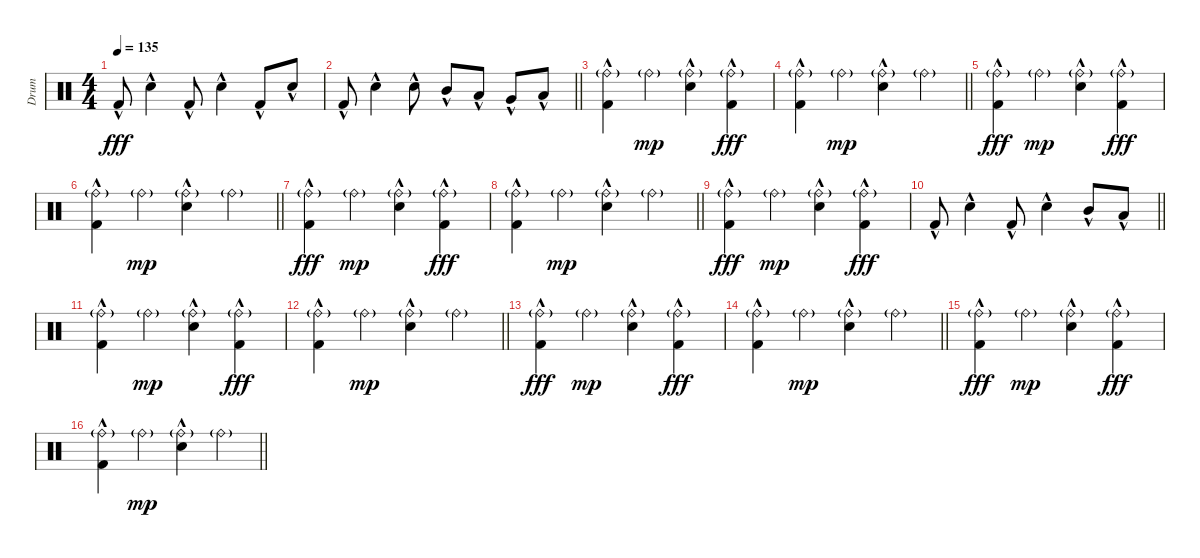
\track ("Drum" "Drum") {instrument percussion}
\staff {score}
\articulation defaults
\ts (4 4)
\tempo 135
\clef neutral
\ks c "Kick (hit) 2"{hac}.8{dy fff} "Electric Snare (hit)"{hac}.4 "Kick (hit) 2"{hac}.8 "Electric Snare (hit)"{hac}.4 "Kick (hit) 2"{hac}.8 "Electric Snare (hit)"{hac}.8
|
\barLineRight lightlight "Kick (hit) 2"{hac}.8 "Electric Snare (hit)"{hac}.4 "Electric Snare (hit)"{hac}.8 "Mid Tom (hit)"{hac}.8 "Low Tom (hit)"{hac}.8 "Very Low Tom (hit)"{hac}.8 "Low Floor Tom (hit)"{hac}.8
|
("Ride (bell)"{g} "Kick (hit) 2"{hac}).4 "Ride (bell)"{g}.4{dy mp} ("Electric Snare (hit)"{hac} "Ride (bell)"{g}).4 ("Ride (bell)"{g} "Kick (hit) 2"{hac}).4{dy fff} |
\barLineRight lightlight
("Ride (bell)"{g} "Kick (hit) 2"{hac}).4 "Ride (bell)"{g}.4{dy mp} ("Electric Snare (hit)"{hac} "Ride (bell)"{g}).4 "Ride (bell)"{g}.4 |
("Ride (bell)"{g} "Kick (hit) 2"{hac}).4{dy fff} "Ride (bell)"{g}.4{dy mp} ("Electric Snare (hit)"{hac} "Ride (bell)"{g}).4 ("Ride (bell)"{g} "Kick (hit) 2"{hac}).4{dy fff} |
\barLineRight lightlight
("Ride (bell)"{g} "Kick (hit) 2"{hac}).4 "Ride (bell)"{g}.4{dy mp} ("Electric Snare (hit)"{hac} "Ride (bell)"{g}).4 "Ride (bell)"{g}.4 |
("Ride (bell)"{g} "Kick (hit) 2"{hac}).4{dy fff} "Ride (bell)"{g}.4{dy mp} ("Electric Snare (hit)"{hac} "Ride (bell)"{g}).4 ("Ride (bell)"{g} "Kick (hit) 2"{hac}).4{dy fff} |
\barLineRight lightlight
("Ride (bell)"{g} "Kick (hit) 2"{hac}).4 "Ride (bell)"{g}.4{dy mp} ("Electric Snare (hit)"{hac} "Ride (bell)"{g}).4 "Ride (bell)"{g}.4 |
("Ride (bell)"{g} "Kick (hit) 2"{hac}).4{dy fff} "Ride (bell)"{g}.4{dy mp} ("Electric Snare (hit)"{hac} "Ride (bell)"{g}).4 ("Ride (bell)"{g} "Kick (hit) 2"{hac}).4{dy fff} |
\barLineRight lightlight "Kick (hit) 2"{hac}.8 "Electric Snare (hit)"{hac}.4 "Kick (hit) 2"{hac}.8 "Electric Snare (hit)"{hac}.4 "Mid Tom (hit)"{hac}.8 "Low Tom (hit)"{hac}.8
|
("Ride (bell)"{g} "Kick (hit) 2"{hac}).4 "Ride (bell)"{g}.4{dy mp} ("Electric Snare (hit)"{hac} "Ride (bell)"{g}).4 ("Ride (bell)"{g} "Kick (hit) 2"{hac}).4{dy fff} |
\barLineRight lightlight
("Ride (bell)"{g} "Kick (hit) 2"{hac}).4 "Ride (bell)"{g}.4{dy mp} ("Electric Snare (hit)"{hac} "Ride (bell)"{g}).4 "Ride (bell)"{g}.4 |
("Ride (bell)"{g} "Kick (hit) 2"{hac}).4{dy fff} "Ride (bell)"{g}.4{dy mp} ("Electric Snare (hit)"{hac} "Ride (bell)"{g}).4 ("Ride (bell)"{g} "Kick (hit) 2"{hac}).4{dy fff} |
\barLineRight lightlight
("Ride (bell)"{g} "Kick (hit) 2"{hac}).4 "Ride (bell)"{g}.4{dy mp} ("Electric Snare (hit)"{hac} "Ride (bell)"{g}).4 "Ride (bell)"{g}.4 |
("Ride (bell)"{g} "Kick (hit) 2"{hac}).4{dy fff} "Ride (bell)"{g}.4{dy mp} ("Electric Snare (hit)"{hac} "Ride (bell)"{g}).4 ("Ride (bell)"{g} "Kick (hit) 2"{hac}).4{dy fff} |
\barLineRight lightlight
("Ride (bell)"{g} "Kick (hit) 2"{hac}).4 "Ride (bell)"{g}.4{dy mp} ("Electric Snare (hit)"{hac} "Ride (bell)"{g}).4 "Ride (bell)"{g}.4
